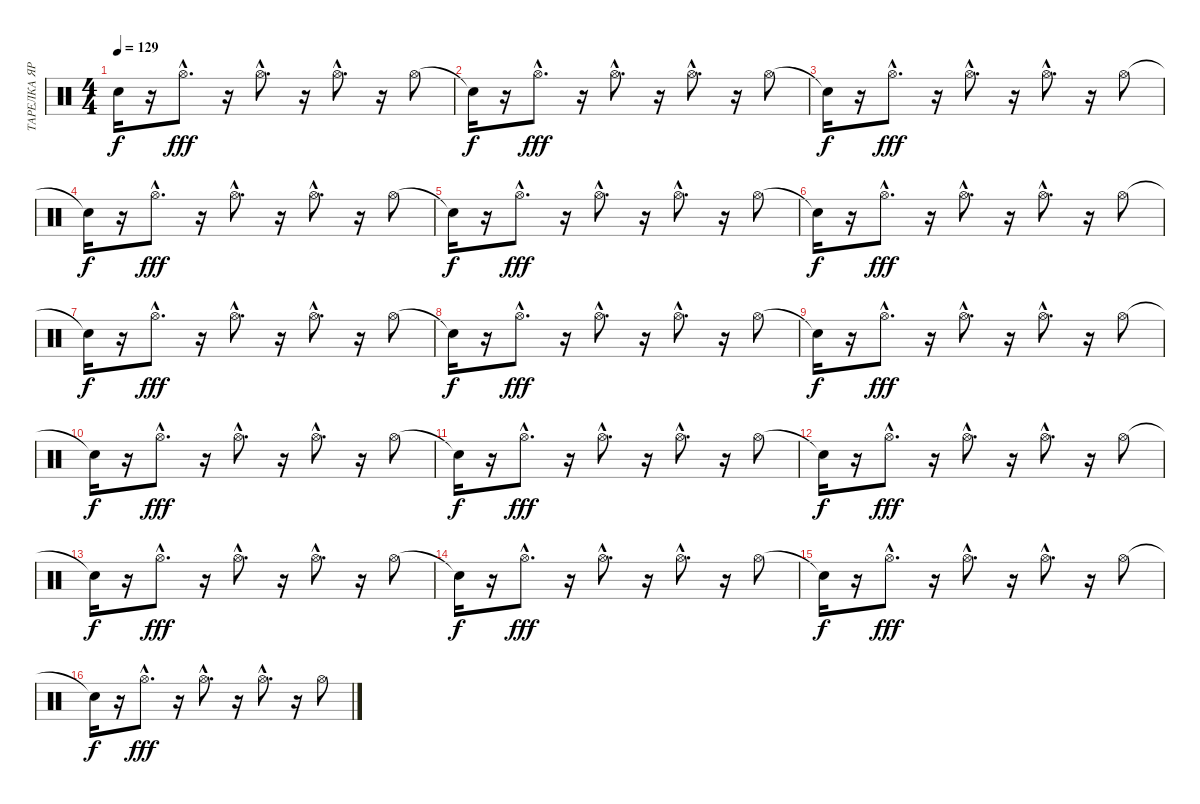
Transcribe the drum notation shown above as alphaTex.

\track ("ТАРЕЛКА ЯРКАЯ" "ТАРЕЛКА ЯР") {instrument percussion}
\staff {score}
\articulation defaults
\ts (4 4)
\tempo 129
\clef neutral
\ks c "Snare (hit)"{t}.16{dy f}
r.16 "Hi-Hat (open)"{hac}.8{d dy fff} r.16 "Hi-Hat (open)"{hac}.8{d} r.16 "Hi-Hat (open)"{hac}.8{d} r.16 "Hi-Hat (open)".8 |
"Snare (hit)"{t}.16{dy f} r.16 "Hi-Hat (open)"{hac}.8{d dy fff} r.16 "Hi-Hat (open)"{hac}.8{d} r.16 "Hi-Hat (open)"{hac}.8{d} r.16 "Hi-Hat (open)".8 |
"Snare (hit)"{t}.16{dy f} r.16 "Hi-Hat (open)"{hac}.8{d dy fff} r.16 "Hi-Hat (open)"{hac}.8{d} r.16 "Hi-Hat (open)"{hac}.8{d} r.16 "Hi-Hat (open)".8 |
"Snare (hit)"{t}.16{dy f} r.16 "Hi-Hat (open)"{hac}.8{d dy fff} r.16 "Hi-Hat (open)"{hac}.8{d} r.16 "Hi-Hat (open)"{hac}.8{d} r.16 "Hi-Hat (open)".8 |
"Snare (hit)"{t}.16{dy f} r.16 "Hi-Hat (open)"{hac}.8{d dy fff} r.16 "Hi-Hat (open)"{hac}.8{d} r.16 "Hi-Hat (open)"{hac}.8{d} r.16 "Hi-Hat (open)".8 |
"Snare (hit)"{t}.16{dy f} r.16 "Hi-Hat (open)"{hac}.8{d dy fff} r.16 "Hi-Hat (open)"{hac}.8{d} r.16 "Hi-Hat (open)"{hac}.8{d} r.16 "Hi-Hat (open)".8 |
"Snare (hit)"{t}.16{dy f} r.16 "Hi-Hat (open)"{hac}.8{d dy fff} r.16 "Hi-Hat (open)"{hac}.8{d} r.16 "Hi-Hat (open)"{hac}.8{d} r.16 "Hi-Hat (open)".8 |
"Snare (hit)"{t}.16{dy f} r.16 "Hi-Hat (open)"{hac}.8{d dy fff} r.16 "Hi-Hat (open)"{hac}.8{d} r.16 "Hi-Hat (open)"{hac}.8{d} r.16 "Hi-Hat (open)".8 |
"Snare (hit)"{t}.16{dy f} r.16 "Hi-Hat (open)"{hac}.8{d dy fff} r.16 "Hi-Hat (open)"{hac}.8{d} r.16 "Hi-Hat (open)"{hac}.8{d} r.16 "Hi-Hat (open)".8 |
"Snare (hit)"{t}.16{dy f} r.16 "Hi-Hat (open)"{hac}.8{d dy fff} r.16 "Hi-Hat (open)"{hac}.8{d} r.16 "Hi-Hat (open)"{hac}.8{d} r.16 "Hi-Hat (open)".8 |
"Snare (hit)"{t}.16{dy f} r.16 "Hi-Hat (open)"{hac}.8{d dy fff} r.16 "Hi-Hat (open)"{hac}.8{d} r.16 "Hi-Hat (open)"{hac}.8{d} r.16 "Hi-Hat (open)".8 |
"Snare (hit)"{t}.16{dy f} r.16 "Hi-Hat (open)"{hac}.8{d dy fff} r.16 "Hi-Hat (open)"{hac}.8{d} r.16 "Hi-Hat (open)"{hac}.8{d} r.16 "Hi-Hat (open)".8 |
"Snare (hit)"{t}.16{dy f} r.16 "Hi-Hat (open)"{hac}.8{d dy fff} r.16 "Hi-Hat (open)"{hac}.8{d} r.16 "Hi-Hat (open)"{hac}.8{d} r.16 "Hi-Hat (open)".8 |
"Snare (hit)"{t}.16{dy f} r.16 "Hi-Hat (open)"{hac}.8{d dy fff} r.16 "Hi-Hat (open)"{hac}.8{d} r.16 "Hi-Hat (open)"{hac}.8{d} r.16 "Hi-Hat (open)".8 |
"Snare (hit)"{t}.16{dy f} r.16 "Hi-Hat (open)"{hac}.8{d dy fff} r.16 "Hi-Hat (open)"{hac}.8{d} r.16 "Hi-Hat (open)"{hac}.8{d} r.16 "Hi-Hat (open)".8 |
"Snare (hit)"{t}.16{dy f} r.16 "Hi-Hat (open)"{hac}.8{d dy fff} r.16 "Hi-Hat (open)"{hac}.8{d} r.16 "Hi-Hat (open)"{hac}.8{d} r.16 "Hi-Hat (open)".8
